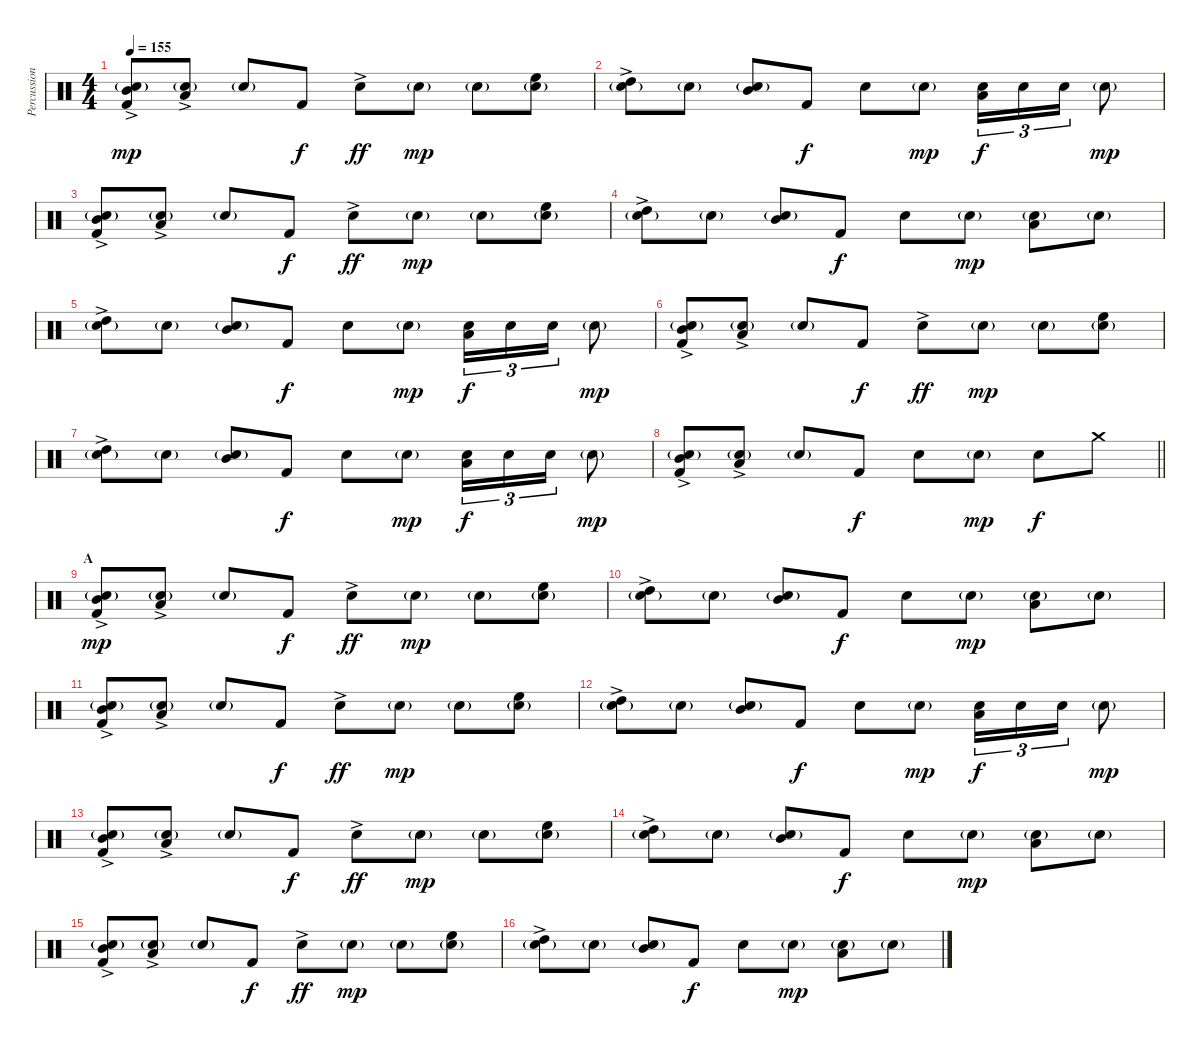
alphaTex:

\track ("Percussion" "Percussion") {instrument percussion}
\staff {score}
\articulation defaults
\ts (4 4)
\tempo 155
\clef neutral
\ks c
("Mid Tom (hit)"{ac} "Snare (hit) 2"{g} "Kick (hit) 2").8{dy mp} ("Low Tom (hit)"{ac} "Snare (hit) 2"{g}).8 "Snare (hit) 2"{g}.8 "Kick (hit) 2".8{dy f} "Snare (hit) 2"{ac}.8{dy ff} "Snare (hit) 2"{g}.8{dy mp} "Snare (hit) 2"{g}.8 ("High Floor Tom (hit)" "Snare (hit) 2"{g}).8 |
("High Tom (hit)"{ac} "Snare (hit) 2"{g}).8 "Snare (hit) 2"{g}.8 ("Mid Tom (hit)" "Snare (hit) 2"{g}).8 "Kick (hit) 2".8{dy f} "Snare (hit) 2".8 "Snare (hit) 2"{g}.8{dy mp} ("Low Tom (hit)" "Snare (hit) 2").16{tu (3 2) dy f} "Snare (hit) 2".16{tu (3 2)} "Snare (hit) 2".16{tu (3 2)} "Snare (hit) 2"{g}.8{dy mp} |
("Mid Tom (hit)"{ac} "Snare (hit) 2"{g} "Kick (hit) 2").8 ("Low Tom (hit)"{ac} "Snare (hit) 2"{g}).8 "Snare (hit) 2"{g}.8 "Kick (hit) 2".8{dy f} "Snare (hit) 2"{ac}.8{dy ff} "Snare (hit) 2"{g}.8{dy mp} "Snare (hit) 2"{g}.8 ("High Floor Tom (hit)" "Snare (hit) 2"{g}).8 |
("High Tom (hit)"{ac} "Snare (hit) 2"{g}).8 "Snare (hit) 2"{g}.8 ("Mid Tom (hit)" "Snare (hit) 2"{g}).8 "Kick (hit) 2".8{dy f} "Snare (hit) 2".8 "Snare (hit) 2"{g}.8{dy mp} ("Low Tom (hit)" "Snare (hit) 2"{g}).8 "Snare (hit) 2"{g}.8 |
("High Tom (hit)"{ac} "Snare (hit) 2"{g}).8 "Snare (hit) 2"{g}.8 ("Mid Tom (hit)" "Snare (hit) 2"{g}).8 "Kick (hit) 2".8{dy f} "Snare (hit) 2".8 "Snare (hit) 2"{g}.8{dy mp} ("Low Tom (hit)" "Snare (hit) 2").16{tu (3 2) dy f} "Snare (hit) 2".16{tu (3 2)} "Snare (hit) 2".16{tu (3 2)} "Snare (hit) 2"{g}.8{dy mp} |
("Mid Tom (hit)"{ac} "Snare (hit) 2"{g} "Kick (hit) 2").8 ("Low Tom (hit)"{ac} "Snare (hit) 2"{g}).8 "Snare (hit) 2"{g}.8 "Kick (hit) 2".8{dy f} "Snare (hit) 2"{ac}.8{dy ff} "Snare (hit) 2"{g}.8{dy mp} "Snare (hit) 2"{g}.8 ("High Floor Tom (hit)" "Snare (hit) 2"{g}).8 |
("High Tom (hit)"{ac} "Snare (hit) 2"{g}).8 "Snare (hit) 2"{g}.8 ("Mid Tom (hit)" "Snare (hit) 2"{g}).8 "Kick (hit) 2".8{dy f} "Snare (hit) 2".8 "Snare (hit) 2"{g}.8{dy mp} ("Low Tom (hit)" "Snare (hit) 2").16{tu (3 2) dy f} "Snare (hit) 2".16{tu (3 2)} "Snare (hit) 2".16{tu (3 2)} "Snare (hit) 2"{g}.8{dy mp} |
\barLineRight lightlight
("Mid Tom (hit)"{ac} "Snare (hit) 2"{g} "Kick (hit) 2").8 ("Low Tom (hit)"{ac} "Snare (hit) 2"{g}).8 "Snare (hit) 2"{g}.8 "Kick (hit) 2".8{dy f} "Snare (hit) 2".8 "Snare (hit) 2"{g}.8{dy mp} "Snare (hit) 2".8{dy f} "Crash medium (hit)".8 |
\section ("" "A")
("Mid Tom (hit)"{ac} "Snare (hit) 2"{g} "Kick (hit) 2").8{dy mp} ("Low Tom (hit)"{ac} "Snare (hit) 2"{g}).8 "Snare (hit) 2"{g}.8 "Kick (hit) 2".8{dy f} "Snare (hit) 2"{ac}.8{dy ff} "Snare (hit) 2"{g}.8{dy mp} "Snare (hit) 2"{g}.8 ("High Floor Tom (hit)" "Snare (hit) 2"{g}).8 |
("High Tom (hit)"{ac} "Snare (hit) 2"{g}).8 "Snare (hit) 2"{g}.8 ("Mid Tom (hit)" "Snare (hit) 2"{g}).8 "Kick (hit) 2".8{dy f} "Snare (hit) 2".8 "Snare (hit) 2"{g}.8{dy mp} ("Low Tom (hit)" "Snare (hit) 2"{g}).8 "Snare (hit) 2"{g}.8 |
("Mid Tom (hit)"{ac} "Snare (hit) 2"{g} "Kick (hit) 2").8 ("Low Tom (hit)"{ac} "Snare (hit) 2"{g}).8 "Snare (hit) 2"{g}.8 "Kick (hit) 2".8{dy f} "Snare (hit) 2"{ac}.8{dy ff} "Snare (hit) 2"{g}.8{dy mp} "Snare (hit) 2"{g}.8 ("High Floor Tom (hit)" "Snare (hit) 2"{g}).8 |
("High Tom (hit)"{ac} "Snare (hit) 2"{g}).8 "Snare (hit) 2"{g}.8 ("Mid Tom (hit)" "Snare (hit) 2"{g}).8 "Kick (hit) 2".8{dy f} "Snare (hit) 2".8 "Snare (hit) 2"{g}.8{dy mp} ("Low Tom (hit)" "Snare (hit) 2").16{tu (3 2) dy f} "Snare (hit) 2".16{tu (3 2)} "Snare (hit) 2".16{tu (3 2)} "Snare (hit) 2"{g}.8{dy mp} |
("Mid Tom (hit)"{ac} "Snare (hit) 2"{g} "Kick (hit) 2").8 ("Low Tom (hit)"{ac} "Snare (hit) 2"{g}).8 "Snare (hit) 2"{g}.8 "Kick (hit) 2".8{dy f} "Snare (hit) 2"{ac}.8{dy ff} "Snare (hit) 2"{g}.8{dy mp} "Snare (hit) 2"{g}.8 ("High Floor Tom (hit)" "Snare (hit) 2"{g}).8 |
("High Tom (hit)"{ac} "Snare (hit) 2"{g}).8 "Snare (hit) 2"{g}.8 ("Mid Tom (hit)" "Snare (hit) 2"{g}).8 "Kick (hit) 2".8{dy f} "Snare (hit) 2".8 "Snare (hit) 2"{g}.8{dy mp} ("Low Tom (hit)" "Snare (hit) 2"{g}).8 "Snare (hit) 2"{g}.8 |
("Mid Tom (hit)"{ac} "Snare (hit) 2"{g} "Kick (hit) 2").8 ("Low Tom (hit)"{ac} "Snare (hit) 2"{g}).8 "Snare (hit) 2"{g}.8 "Kick (hit) 2".8{dy f} "Snare (hit) 2"{ac}.8{dy ff} "Snare (hit) 2"{g}.8{dy mp} "Snare (hit) 2"{g}.8 ("High Floor Tom (hit)" "Snare (hit) 2"{g}).8 |
("High Tom (hit)"{ac} "Snare (hit) 2"{g}).8 "Snare (hit) 2"{g}.8 ("Mid Tom (hit)" "Snare (hit) 2"{g}).8 "Kick (hit) 2".8{dy f} "Snare (hit) 2".8 "Snare (hit) 2"{g}.8{dy mp} ("Low Tom (hit)" "Snare (hit) 2"{g}).8 "Snare (hit) 2"{g}.8
